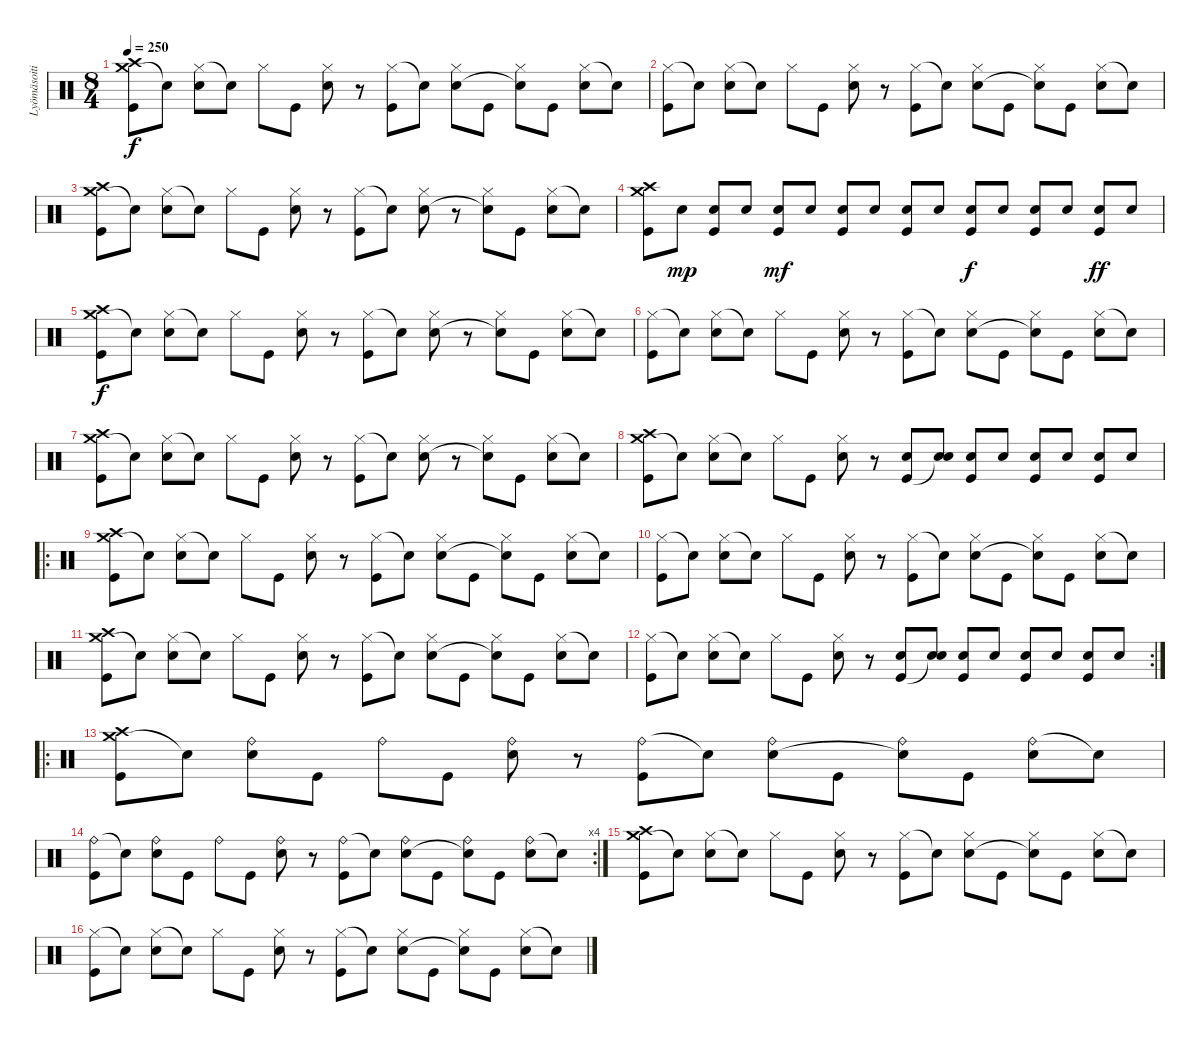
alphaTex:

\track ("Lyömäsoitin" "Lyömäsoiti") {instrument percussion}
\staff {score}
\articulation defaults
\ts (8 4)
\tempo 250
\clef neutral
\ks c
("Crash medium (hit)" "Crash high (hit)" "Kick (hit)").8{dy f} "Snare (hit)"{t}.8 ("Hi-Hat (closed)" "Snare (hit) 2").8 "Snare (hit)"{t}.8 "Hi-Hat (closed)".8 "Kick (hit)".8 ("Hi-Hat (closed)" "Snare (hit) 2").8 r.8 ("Hi-Hat (closed)" "Kick (hit)").8 "Snare (hit)"{t}.8 ("Hi-Hat (closed)" "Snare (hit) 2").8 "Kick (hit)".8 ("Hi-Hat (closed)" "Snare (hit)"{t}).8 "Kick (hit)".8 ("Hi-Hat (closed)" "Snare (hit) 2").8 "Snare (hit)"{t}.8 |
("Hi-Hat (closed)" "Kick (hit)").8 "Snare (hit)"{t}.8 ("Hi-Hat (closed)" "Snare (hit) 2").8 "Snare (hit)"{t}.8 "Hi-Hat (closed)".8 "Kick (hit)".8 ("Hi-Hat (closed)" "Snare (hit) 2").8 r.8 ("Hi-Hat (closed)" "Kick (hit)").8 "Snare (hit)"{t}.8 ("Hi-Hat (closed)" "Snare (hit) 2").8 "Kick (hit)".8 ("Hi-Hat (closed)" "Snare (hit)"{t}).8 "Kick (hit)".8 ("Hi-Hat (closed)" "Snare (hit) 2").8 "Snare (hit)"{t}.8 |
("Crash medium (hit)" "Crash high (hit)" "Kick (hit)").8 "Snare (hit)"{t}.8 ("Hi-Hat (closed)" "Snare (hit) 2").8 "Snare (hit)"{t}.8 "Hi-Hat (closed)".8 "Kick (hit)".8 ("Hi-Hat (closed)" "Snare (hit) 2").8 r.8 ("Hi-Hat (closed)" "Kick (hit)").8 "Snare (hit)"{t}.8 ("Hi-Hat (closed)" "Snare (hit) 2").8 r.8 ("Hi-Hat (closed)" "Snare (hit)"{t}).8 "Kick (hit)".8 ("Hi-Hat (closed)" "Snare (hit) 2").8 "Snare (hit)"{t}.8 |
("Crash medium (hit)" "Crash high (hit)" "Kick (hit)").8 "Snare (hit) 2".8{dy mp} ("Snare (hit) 2" "Kick (hit)").8 "Snare (hit) 2".8 ("Snare (hit) 2" "Kick (hit)").8{dy mf} "Snare (hit) 2".8 ("Snare (hit) 2" "Kick (hit)").8 "Snare (hit) 2".8 ("Snare (hit) 2" "Kick (hit)").8 "Snare (hit) 2".8 ("Snare (hit) 2" "Kick (hit)").8{dy f} "Snare (hit) 2".8 ("Snare (hit) 2" "Kick (hit)").8 "Snare (hit) 2".8 ("Snare (hit) 2" "Kick (hit)").8{dy ff} "Snare (hit) 2".8 |
("Crash medium (hit)" "Crash high (hit)" "Kick (hit)").8{dy f} "Snare (hit)"{t}.8 ("Hi-Hat (closed)" "Snare (hit) 2").8 "Snare (hit)"{t}.8 "Hi-Hat (closed)".8 "Kick (hit)".8 ("Hi-Hat (closed)" "Snare (hit) 2").8 r.8 ("Hi-Hat (closed)" "Kick (hit)").8 "Snare (hit)"{t}.8 ("Hi-Hat (closed)" "Snare (hit) 2").8 r.8 ("Hi-Hat (closed)" "Snare (hit)"{t}).8 "Kick (hit)".8 ("Hi-Hat (closed)" "Snare (hit) 2").8 "Snare (hit)"{t}.8 |
("Hi-Hat (closed)" "Kick (hit)").8 "Snare (hit)"{t}.8 ("Hi-Hat (closed)" "Snare (hit) 2").8 "Snare (hit)"{t}.8 "Hi-Hat (closed)".8 "Kick (hit)".8 ("Hi-Hat (closed)" "Snare (hit) 2").8 r.8 ("Hi-Hat (closed)" "Kick (hit)").8 "Snare (hit)"{t}.8 ("Hi-Hat (closed)" "Snare (hit) 2").8 "Kick (hit)".8 ("Hi-Hat (closed)" "Snare (hit)"{t}).8 "Kick (hit)".8 ("Hi-Hat (closed)" "Snare (hit) 2").8 "Snare (hit)"{t}.8 |
("Crash medium (hit)" "Crash high (hit)" "Kick (hit)").8 "Snare (hit)"{t}.8 ("Hi-Hat (closed)" "Snare (hit) 2").8 "Snare (hit)"{t}.8 "Hi-Hat (closed)".8 "Kick (hit)".8 ("Hi-Hat (closed)" "Snare (hit) 2").8 r.8 ("Hi-Hat (closed)" "Kick (hit)").8 "Snare (hit)"{t}.8 ("Hi-Hat (closed)" "Snare (hit) 2").8 r.8 ("Hi-Hat (closed)" "Snare (hit)"{t}).8 "Kick (hit)".8 ("Hi-Hat (closed)" "Snare (hit) 2").8 "Snare (hit)"{t}.8 |
("Crash medium (hit)" "Crash high (hit)" "Kick (hit)").8 "Snare (hit)"{t}.8 ("Hi-Hat (closed)" "Snare (hit) 2").8 "Snare (hit)"{t}.8 "Hi-Hat (closed)".8 "Kick (hit)".8 ("Hi-Hat (closed)" "Snare (hit) 2").8 r.8 ("Snare (hit) 2" "Kick (hit)").8 ("Snare (hit) 2" "Snare (hit)"{t}).8 ("Snare (hit) 2" "Kick (hit)").8 "Snare (hit) 2".8 ("Snare (hit) 2" "Kick (hit)").8 "Snare (hit) 2".8 ("Snare (hit) 2" "Kick (hit)").8 "Snare (hit) 2".8 |
\ro
("Crash medium (hit)" "Crash high (hit)" "Kick (hit)").8 "Snare (hit)"{t}.8 ("Hi-Hat (closed)" "Snare (hit) 2").8 "Snare (hit)"{t}.8 "Hi-Hat (closed)".8 "Kick (hit)".8 ("Hi-Hat (closed)" "Snare (hit) 2").8 r.8 ("Hi-Hat (closed)" "Kick (hit)").8 "Snare (hit)"{t}.8 ("Hi-Hat (closed)" "Snare (hit) 2").8 "Kick (hit)".8 ("Hi-Hat (closed)" "Snare (hit)"{t}).8 "Kick (hit)".8 ("Hi-Hat (closed)" "Snare (hit) 2").8 "Snare (hit)"{t}.8 |
("Hi-Hat (closed)" "Kick (hit)").8 "Snare (hit)"{t}.8 ("Hi-Hat (closed)" "Snare (hit) 2").8 "Snare (hit)"{t}.8 "Hi-Hat (closed)".8 "Kick (hit)".8 ("Hi-Hat (closed)" "Snare (hit) 2").8 r.8 ("Hi-Hat (closed)" "Kick (hit)").8 "Snare (hit)"{t}.8 ("Hi-Hat (closed)" "Snare (hit) 2").8 "Kick (hit)".8 ("Hi-Hat (closed)" "Snare (hit)"{t}).8 "Kick (hit)".8 ("Hi-Hat (closed)" "Snare (hit) 2").8 "Snare (hit)"{t}.8 |
("Crash medium (hit)" "Crash high (hit)" "Kick (hit)").8 "Snare (hit)"{t}.8 ("Hi-Hat (closed)" "Snare (hit) 2").8 "Snare (hit)"{t}.8 "Hi-Hat (closed)".8 "Kick (hit)".8 ("Hi-Hat (closed)" "Snare (hit) 2").8 r.8 ("Hi-Hat (closed)" "Kick (hit)").8 "Snare (hit)"{t}.8 ("Hi-Hat (closed)" "Snare (hit) 2").8 "Kick (hit)".8 ("Hi-Hat (closed)" "Snare (hit)"{t}).8 "Kick (hit)".8 ("Hi-Hat (closed)" "Snare (hit) 2").8 "Snare (hit)"{t}.8 |
\rc 2
("Hi-Hat (closed)" "Kick (hit)").8 "Snare (hit)"{t}.8 ("Hi-Hat (closed)" "Snare (hit) 2").8 "Snare (hit)"{t}.8 "Hi-Hat (closed)".8 "Kick (hit)".8 ("Hi-Hat (closed)" "Snare (hit) 2").8 r.8 ("Snare (hit) 2" "Kick (hit)").8 ("Snare (hit) 2" "Snare (hit)"{t}).8 ("Snare (hit) 2" "Kick (hit)").8 "Snare (hit) 2".8 ("Snare (hit) 2" "Kick (hit)").8 "Snare (hit) 2".8 ("Snare (hit) 2" "Kick (hit)").8 "Snare (hit) 2".8 |
\ro
("Crash medium (hit)" "Crash high (hit)" "Kick (hit)").8 "Snare (hit)"{t}.8 ("Ride (bell)" "Snare (hit) 2").8 "Kick (hit)".8 "Ride (bell)".8 "Kick (hit)".8 ("Ride (bell)" "Snare (hit) 2").8 r.8 ("Ride (bell)" "Kick (hit)").8 "Snare (hit)"{t}.8 ("Ride (bell)" "Snare (hit) 2").8 "Kick (hit)".8 ("Ride (bell)" "Snare (hit)"{t}).8 "Kick (hit)".8 ("Ride (bell)" "Snare (hit) 2").8 "Snare (hit)"{t}.8 |
\rc 4
("Ride (bell)" "Kick (hit)").8 "Snare (hit)"{t}.8 ("Ride (bell)" "Snare (hit) 2").8 "Kick (hit)".8 "Ride (bell)".8 "Kick (hit)".8 ("Ride (bell)" "Snare (hit) 2").8 r.8 ("Ride (bell)" "Kick (hit)").8 "Snare (hit)"{t}.8 ("Ride (bell)" "Snare (hit) 2").8 "Kick (hit)".8 ("Ride (bell)" "Snare (hit)"{t}).8 "Kick (hit)".8 ("Ride (bell)" "Snare (hit) 2").8 "Snare (hit)"{t}.8 |
("Crash medium (hit)" "Crash high (hit)" "Kick (hit)").8 "Snare (hit)"{t}.8 ("Hi-Hat (closed)" "Snare (hit) 2").8 "Snare (hit)"{t}.8 "Hi-Hat (closed)".8 "Kick (hit)".8 ("Hi-Hat (closed)" "Snare (hit) 2").8 r.8 ("Hi-Hat (closed)" "Kick (hit)").8 "Snare (hit)"{t}.8 ("Hi-Hat (closed)" "Snare (hit) 2").8 "Kick (hit)".8 ("Hi-Hat (closed)" "Snare (hit)"{t}).8 "Kick (hit)".8 ("Hi-Hat (closed)" "Snare (hit) 2").8 "Snare (hit)"{t}.8 |
("Hi-Hat (closed)" "Kick (hit)").8 "Snare (hit)"{t}.8 ("Hi-Hat (closed)" "Snare (hit) 2").8 "Snare (hit)"{t}.8 "Hi-Hat (closed)".8 "Kick (hit)".8 ("Hi-Hat (closed)" "Snare (hit) 2").8 r.8 ("Hi-Hat (closed)" "Kick (hit)").8 "Snare (hit)"{t}.8 ("Hi-Hat (closed)" "Snare (hit) 2").8 "Kick (hit)".8 ("Hi-Hat (closed)" "Snare (hit)"{t}).8 "Kick (hit)".8 ("Hi-Hat (closed)" "Snare (hit) 2").8 "Snare (hit)"{t}.8
